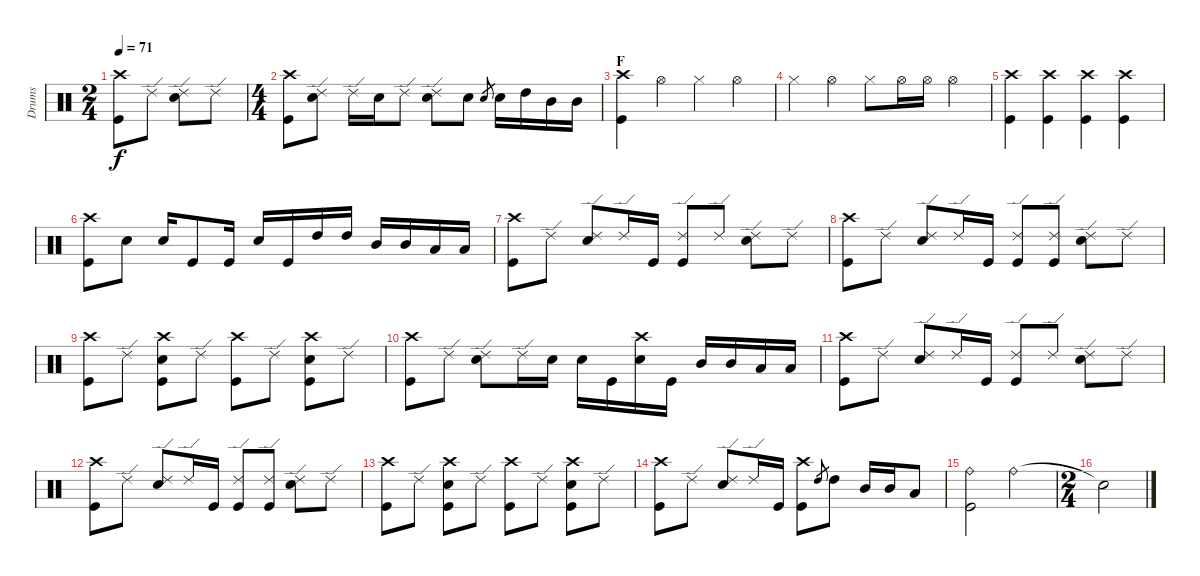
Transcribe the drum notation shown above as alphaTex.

\track ("Drums" "Drums") {instrument percussion}
\staff {score}
\articulation defaults
\ts (2 4)
\tempo 71
\clef neutral
\ks c
("Crash high (hit)" "Kick (hit)").8{dy f} "Ride (edge) 2".8 ("Ride (edge) 2" "Snare (hit) 2").8 "Ride (edge) 2".8 |
\ts (4 4)
("Crash high (hit)" "Kick (hit)").8 ("Ride (edge) 2" "Snare (hit) 2").8 "Ride (edge) 2".16 "Snare (hit) 2".16 "Ride (edge) 2".8 ("Ride (edge) 2" "Snare (hit) 2").8 "Snare (hit) 2".8 "Snare (hit) 2".8{gr} "Snare (hit) 2".16 "High Tom (hit)".16 "Mid Tom (hit)".16 "Mid Tom (hit)".16 |
\section ("" "F")
("Crash high (hit)" "Kick (hit)").4 "Hi-Hat (open)".4 "Hi-Hat (closed)".4 "Hi-Hat (open)".4 |
"Hi-Hat (closed)".4 "Hi-Hat (open)".4 "Hi-Hat (closed)".8 "Hi-Hat (open)".16 "Hi-Hat (open)".16 "Hi-Hat (open)".4 |
("Crash high (hit)" "Kick (hit)").4 ("Crash high (hit)" "Kick (hit)").4 ("Crash high (hit)" "Kick (hit)").4 ("Crash high (hit)" "Kick (hit)").4 |
("Crash high (hit)" "Kick (hit)").8 "Snare (hit) 2".8 "Snare (hit) 2".16 "Kick (hit)".8 "Kick (hit)".16 "Snare (hit) 2".16 "Kick (hit)".16 "High Tom (hit)".16 "High Tom (hit)".16 "Mid Tom (hit)".16 "Mid Tom (hit)".16 "Low Tom (hit)".16 "Low Tom (hit)".16 |
("Crash high (hit)" "Kick (hit)").8 "Ride (edge) 2".8 ("Ride (edge) 2" "Snare (hit) 2").8 "Ride (edge) 2".16 "Kick (hit)".16 ("Ride (edge) 2" "Kick (hit)").8 "Ride (edge) 2".8 ("Ride (edge) 2" "Snare (hit) 2").8 "Ride (edge) 2".8 |
("Crash high (hit)" "Kick (hit)").8 "Ride (edge) 2".8 ("Ride (edge) 2" "Snare (hit) 2").8 "Ride (edge) 2".16 "Kick (hit)".16 ("Ride (edge) 2" "Kick (hit)").8 ("Ride (edge) 2" "Kick (hit)").8 ("Ride (edge) 2" "Snare (hit) 2").8 "Ride (edge) 2".8 |
("Crash high (hit)" "Kick (hit)").8 "Ride (edge) 2".8 ("Crash high (hit)" "Snare (hit) 2" "Kick (hit)").8 "Ride (edge) 2".8 ("Crash high (hit)" "Kick (hit)").8 "Ride (edge) 2".8 ("Crash high (hit)" "Snare (hit) 2" "Kick (hit)").8 "Ride (edge) 2".8 |
("Crash high (hit)" "Kick (hit)").8 "Ride (edge) 2".8 ("Ride (edge) 2" "Snare (hit) 2").8 "Ride (edge) 2".16 "Snare (hit) 2".16 "Snare (hit) 2".16 "Kick (hit)".16 ("Crash high (hit)" "Snare (hit) 2").16 "Kick (hit)".16 "Mid Tom (hit)".16 "Mid Tom (hit)".16 "Low Tom (hit)".16 "Low Tom (hit)".16 |
("Crash high (hit)" "Kick (hit)").8 "Ride (edge) 2".8 ("Ride (edge) 2" "Snare (hit) 2").8 "Ride (edge) 2".16 "Kick (hit)".16 ("Ride (edge) 2" "Kick (hit)").8 "Ride (edge) 2".8 ("Ride (edge) 2" "Snare (hit) 2").8 "Ride (edge) 2".8 |
("Crash high (hit)" "Kick (hit)").8 "Ride (edge) 2".8 ("Ride (edge) 2" "Snare (hit) 2").8 "Ride (edge) 2".16 "Kick (hit)".16 ("Ride (edge) 2" "Kick (hit)").8 ("Ride (edge) 2" "Kick (hit)").8 ("Ride (edge) 2" "Snare (hit) 2").8 "Ride (edge) 2".8 |
("Crash high (hit)" "Kick (hit)").8 "Ride (edge) 2".8 ("Crash high (hit)" "Snare (hit) 2" "Kick (hit)").8 "Ride (edge) 2".8 ("Crash high (hit)" "Kick (hit)").8 "Ride (edge) 2".8 ("Crash high (hit)" "Snare (hit) 2" "Kick (hit)").8 "Ride (edge) 2".8 |
("Crash high (hit)" "Kick (hit)").8 "Ride (edge) 2".8 ("Ride (edge) 2" "Snare (hit) 2").8 "Ride (edge) 2".16 "Kick (hit)".16 ("Crash high (hit)" "Kick (hit)").8 "High Tom (hit)".8{gr} "High Tom (hit)".8 "Mid Tom (hit)".16 "Mid Tom (hit)".16 "Low Tom (hit)".8 |
("Ride (bell)" "Kick (hit)").2 "Ride (bell)".2 |
\ts (2 4)
"Snare (hit)"{t}.2
